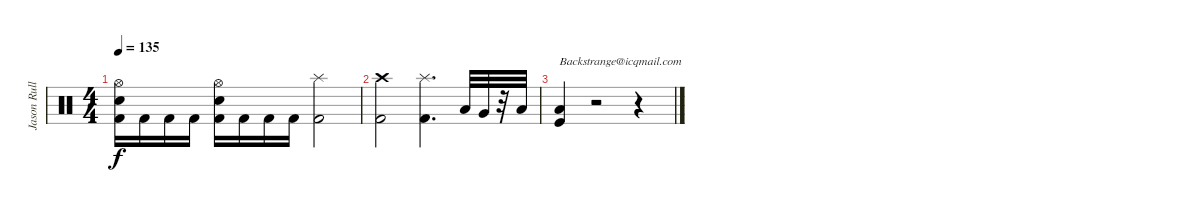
\track ("Jason Rullo" "Jason Rull") {instrument percussion}
\staff {score}
\articulation defaults
\ts (4 4)
\tempo 135
\clef neutral
\ks c
("Hi-Hat (open)" "Kick (hit) 2" "Electric Snare (hit)").16{dy f} "Kick (hit) 2".16 "Kick (hit) 2".16 "Kick (hit) 2".16 ("Hi-Hat (open)" "Kick (hit) 2" "Electric Snare (hit)").16 "Kick (hit) 2".16 "Kick (hit) 2".16 "Kick (hit) 2".16 ("Splash (hit)" "Kick (hit) 2").2 |
("Crash high (hit)" "Kick (hit) 2").2 ("Splash (hit)" "Kick (hit) 2").4{d} "Low Tom (hit)".32 "Very Low Tom (hit)".32 r.32 "Low Floor Tom (hit)".32 |
("Low Floor Tom (hit)" "Kick (hit)").4{txt "Backstrange@icqmail.com"} r.2 r.4
